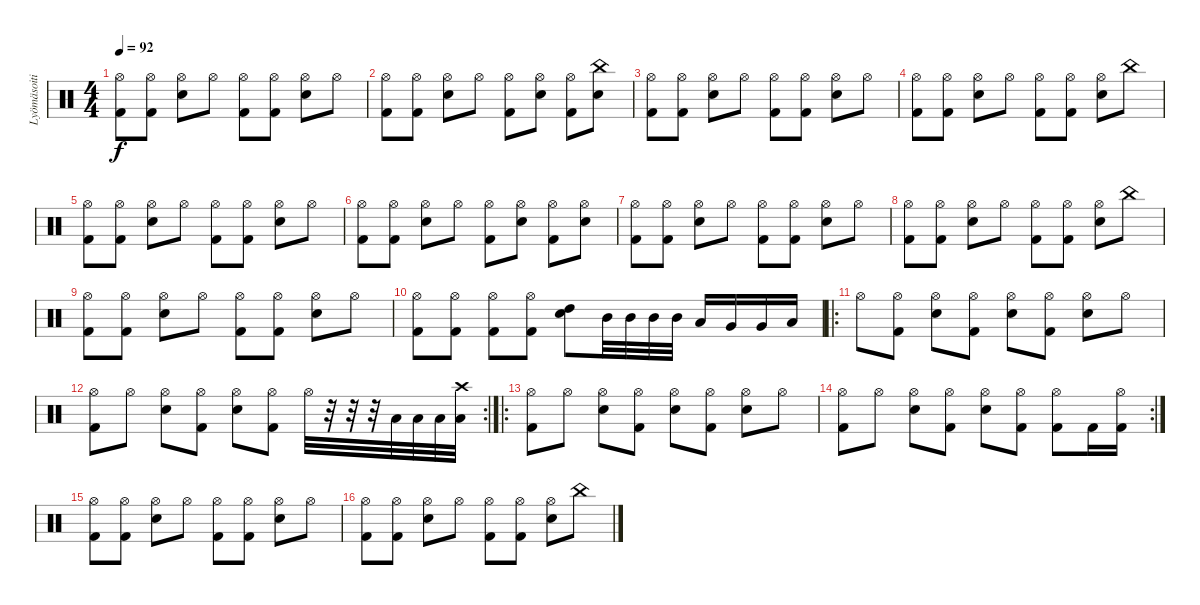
\track ("Lyömäsoitin" "Lyömäsoiti") {instrument percussion}
\staff {score}
\articulation defaults
\ts (4 4)
\tempo 92
\clef neutral
\ks c
("Hi-Hat (open)" "Kick (hit) 2").8{dy f} ("Hi-Hat (open)" "Kick (hit) 2").8 ("Hi-Hat (open)" "Snare (hit) 2").8 "Hi-Hat (open)".8 ("Hi-Hat (open)" "Kick (hit) 2").8 ("Hi-Hat (open)" "Kick (hit) 2").8 ("Hi-Hat (open)" "Snare (hit) 2").8 "Hi-Hat (open)".8 |
("Hi-Hat (open)" "Kick (hit) 2").8 ("Hi-Hat (open)" "Kick (hit) 2").8 ("Hi-Hat (open)" "Snare (hit) 2").8 "Hi-Hat (open)".8 ("Hi-Hat (open)" "Kick (hit) 2").8 ("Hi-Hat (open)" "Snare (hit) 2").8 ("Hi-Hat (open)" "Kick (hit) 2").8 ("China (hit)" "Snare (hit) 2").8 |
("Hi-Hat (open)" "Kick (hit) 2").8 ("Hi-Hat (open)" "Kick (hit) 2").8 ("Hi-Hat (open)" "Snare (hit) 2").8 "Hi-Hat (open)".8 ("Hi-Hat (open)" "Kick (hit) 2").8 ("Hi-Hat (open)" "Kick (hit) 2").8 ("Hi-Hat (open)" "Snare (hit) 2").8 "Hi-Hat (open)".8 |
("Hi-Hat (open)" "Kick (hit) 2").8 ("Hi-Hat (open)" "Kick (hit) 2").8 ("Hi-Hat (open)" "Snare (hit) 2").8 "Hi-Hat (open)".8 ("Hi-Hat (open)" "Kick (hit) 2").8 ("Hi-Hat (open)" "Kick (hit) 2").8 ("Hi-Hat (open)" "Snare (hit) 2").8 "China (hit)".8 |
("Hi-Hat (open)" "Kick (hit) 2").8 ("Hi-Hat (open)" "Kick (hit) 2").8 ("Hi-Hat (open)" "Snare (hit) 2").8 "Hi-Hat (open)".8 ("Hi-Hat (open)" "Kick (hit) 2").8 ("Hi-Hat (open)" "Kick (hit) 2").8 ("Hi-Hat (open)" "Snare (hit) 2").8 "Hi-Hat (open)".8 |
("Hi-Hat (open)" "Kick (hit) 2").8 ("Hi-Hat (open)" "Kick (hit) 2").8 ("Hi-Hat (open)" "Snare (hit) 2").8 "Hi-Hat (open)".8 ("Hi-Hat (open)" "Kick (hit) 2").8 ("Hi-Hat (open)" "Snare (hit) 2").8 ("Hi-Hat (open)" "Kick (hit) 2").8 ("Hi-Hat (open)" "Snare (hit) 2").8 |
("Hi-Hat (open)" "Kick (hit) 2").8 ("Hi-Hat (open)" "Kick (hit) 2").8 ("Hi-Hat (open)" "Snare (hit) 2").8 "Hi-Hat (open)".8 ("Hi-Hat (open)" "Kick (hit) 2").8 ("Hi-Hat (open)" "Kick (hit) 2").8 ("Hi-Hat (open)" "Snare (hit) 2").8 "Hi-Hat (open)".8 |
("Hi-Hat (open)" "Kick (hit) 2").8 ("Hi-Hat (open)" "Kick (hit) 2").8 ("Hi-Hat (open)" "Snare (hit) 2").8 "Hi-Hat (open)".8 ("Hi-Hat (open)" "Kick (hit) 2").8 ("Hi-Hat (open)" "Kick (hit) 2").8 ("Hi-Hat (open)" "Snare (hit) 2").8 "China (hit)".8 |
("Hi-Hat (open)" "Kick (hit) 2").8 ("Hi-Hat (open)" "Kick (hit) 2").8 ("Hi-Hat (open)" "Snare (hit) 2").8 "Hi-Hat (open)".8 ("Hi-Hat (open)" "Kick (hit) 2").8 ("Hi-Hat (open)" "Kick (hit) 2").8 ("Hi-Hat (open)" "Snare (hit) 2").8 "Hi-Hat (open)".8 |
("Hi-Hat (open)" "Kick (hit) 2").8 ("Hi-Hat (open)" "Kick (hit) 2").8 ("Hi-Hat (open)" "Kick (hit) 2").8 ("Hi-Hat (open)" "Kick (hit) 2").8 ("Snare (hit) 2" "High Tom (hit)").8 "Mid Tom (hit)".32 "Mid Tom (hit)".32 "Mid Tom (hit)".32 "Mid Tom (hit)".32 "Low Tom (hit)".16 "Very Low Tom (hit)".16 "Very Low Tom (hit)".16 "Low Floor Tom (hit)".16 |
\ro "Hi-Hat (open)".8
("Hi-Hat (open)" "Kick (hit) 2").8 ("Hi-Hat (open)" "Snare (hit) 2").8 ("Hi-Hat (open)" "Kick (hit) 2").8 ("Hi-Hat (open)" "Snare (hit) 2").8 ("Hi-Hat (open)" "Kick (hit) 2").8 ("Hi-Hat (open)" "Snare (hit) 2").8 "Hi-Hat (open)".8 |
\rc 2
("Hi-Hat (open)" "Kick (hit) 2").8 "Hi-Hat (open)".8 ("Hi-Hat (open)" "Snare (hit) 2").8 ("Hi-Hat (open)" "Kick (hit) 2").8 ("Hi-Hat (open)" "Snare (hit) 2").8 ("Hi-Hat (open)" "Kick (hit) 2").8 "Hi-Hat (open)".32 r.32 r.32 r.32 "Low Floor Tom (hit)".32 "Low Floor Tom (hit)".32 "Low Floor Tom (hit)".32 ("Crash high (hit)" "Low Floor Tom (hit)").32 |
\ro
("Hi-Hat (open)" "Kick (hit) 2").8 "Hi-Hat (open)".8 ("Hi-Hat (open)" "Snare (hit) 2").8 ("Hi-Hat (open)" "Kick (hit) 2").8 ("Hi-Hat (open)" "Snare (hit) 2").8 ("Hi-Hat (open)" "Kick (hit) 2").8 ("Hi-Hat (open)" "Snare (hit) 2").8 "Hi-Hat (open)".8 |
\rc 2
("Hi-Hat (open)" "Kick (hit) 2").8 "Hi-Hat (open)".8 ("Hi-Hat (open)" "Snare (hit) 2").8 ("Hi-Hat (open)" "Kick (hit) 2").8 ("Hi-Hat (open)" "Snare (hit) 2").8 ("Hi-Hat (open)" "Kick (hit) 2").8 ("Hi-Hat (open)" "Kick (hit) 2").8 "Kick (hit) 2".16 ("Hi-Hat (open)" "Kick (hit) 2").16 |
("Hi-Hat (open)" "Kick (hit) 2").8 ("Hi-Hat (open)" "Kick (hit) 2").8 ("Hi-Hat (open)" "Snare (hit) 2").8 "Hi-Hat (open)".8 ("Hi-Hat (open)" "Kick (hit) 2").8 ("Hi-Hat (open)" "Kick (hit) 2").8 ("Hi-Hat (open)" "Snare (hit) 2").8 "Hi-Hat (open)".8 |
("Hi-Hat (open)" "Kick (hit) 2").8 ("Hi-Hat (open)" "Kick (hit) 2").8 ("Hi-Hat (open)" "Snare (hit) 2").8 "Hi-Hat (open)".8 ("Hi-Hat (open)" "Kick (hit) 2").8 ("Hi-Hat (open)" "Kick (hit) 2").8 ("Hi-Hat (open)" "Snare (hit) 2").8 "China (hit)".8
